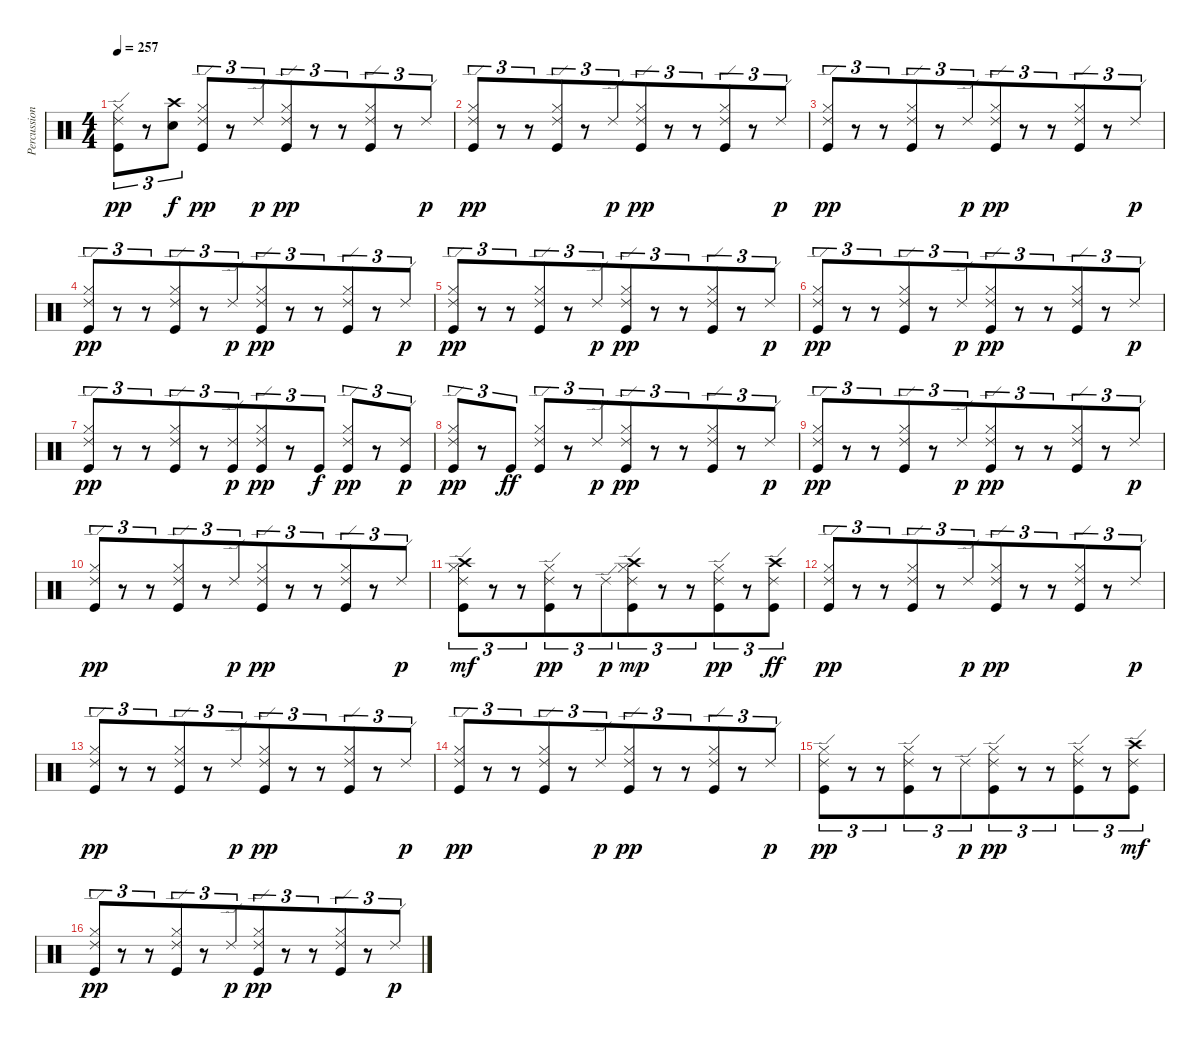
\track ("Percussion" "Percussion") {instrument percussion}
\staff {score}
\articulation defaults
\ts (4 4)
\tempo 257
\clef neutral
\ks c
("Ride (edge) 2" "Hi-Hat (closed)" "Kick (hit)").8{tu (3 2) dy pp beam merge} r.8{tu (3 2) beam merge} ("Crash high (hit)" "Electric Snare (hit)").8{tu (3 2) dy f} ("Ride (edge) 2" "Hi-Hat (closed)" "Kick (hit)").8{tu (3 2) dy pp} r.8{tu (3 2)} "Ride (edge) 2".8{tu (3 2) dy p beam merge} ("Ride (edge) 2" "Hi-Hat (closed)" "Kick (hit)").8{tu (3 2) dy pp beam merge} r.8{tu (3 2) beam merge} r.8{tu (3 2)} ("Ride (edge) 2" "Hi-Hat (closed)" "Kick (hit)").8{tu (3 2)} r.8{tu (3 2)} "Ride (edge) 2".8{tu (3 2) dy p} |
("Ride (edge) 2" "Hi-Hat (closed)" "Kick (hit)").8{tu (3 2) dy pp beam merge} r.8{tu (3 2) beam merge} r.8{tu (3 2)} ("Ride (edge) 2" "Hi-Hat (closed)" "Kick (hit)").8{tu (3 2)} r.8{tu (3 2)} "Ride (edge) 2".8{tu (3 2) dy p beam merge} ("Ride (edge) 2" "Hi-Hat (closed)" "Kick (hit)").8{tu (3 2) dy pp beam merge} r.8{tu (3 2) beam merge} r.8{tu (3 2)} ("Ride (edge) 2" "Hi-Hat (closed)" "Kick (hit)").8{tu (3 2)} r.8{tu (3 2)} "Ride (edge) 2".8{tu (3 2) dy p} |
("Ride (edge) 2" "Hi-Hat (closed)" "Kick (hit)").8{tu (3 2) dy pp beam merge} r.8{tu (3 2) beam merge} r.8{tu (3 2)} ("Ride (edge) 2" "Hi-Hat (closed)" "Kick (hit)").8{tu (3 2)} r.8{tu (3 2)} "Ride (edge) 2".8{tu (3 2) dy p beam merge} ("Ride (edge) 2" "Hi-Hat (closed)" "Kick (hit)").8{tu (3 2) dy pp beam merge} r.8{tu (3 2) beam merge} r.8{tu (3 2)} ("Ride (edge) 2" "Hi-Hat (closed)" "Kick (hit)").8{tu (3 2)} r.8{tu (3 2)} "Ride (edge) 2".8{tu (3 2) dy p} |
("Ride (edge) 2" "Hi-Hat (closed)" "Kick (hit)").8{tu (3 2) dy pp beam merge} r.8{tu (3 2) beam merge} r.8{tu (3 2)} ("Ride (edge) 2" "Hi-Hat (closed)" "Kick (hit)").8{tu (3 2)} r.8{tu (3 2)} "Ride (edge) 2".8{tu (3 2) dy p beam merge} ("Ride (edge) 2" "Hi-Hat (closed)" "Kick (hit)").8{tu (3 2) dy pp beam merge} r.8{tu (3 2) beam merge} r.8{tu (3 2)} ("Ride (edge) 2" "Hi-Hat (closed)" "Kick (hit)").8{tu (3 2)} r.8{tu (3 2)} "Ride (edge) 2".8{tu (3 2) dy p} |
("Ride (edge) 2" "Hi-Hat (closed)" "Kick (hit)").8{tu (3 2) dy pp beam merge} r.8{tu (3 2) beam merge} r.8{tu (3 2)} ("Ride (edge) 2" "Hi-Hat (closed)" "Kick (hit)").8{tu (3 2)} r.8{tu (3 2)} "Ride (edge) 2".8{tu (3 2) dy p beam merge} ("Ride (edge) 2" "Hi-Hat (closed)" "Kick (hit)").8{tu (3 2) dy pp beam merge} r.8{tu (3 2) beam merge} r.8{tu (3 2)} ("Ride (edge) 2" "Hi-Hat (closed)" "Kick (hit)").8{tu (3 2)} r.8{tu (3 2)} "Ride (edge) 2".8{tu (3 2) dy p} |
("Ride (edge) 2" "Hi-Hat (closed)" "Kick (hit)").8{tu (3 2) dy pp beam merge} r.8{tu (3 2) beam merge} r.8{tu (3 2)} ("Ride (edge) 2" "Hi-Hat (closed)" "Kick (hit)").8{tu (3 2)} r.8{tu (3 2)} "Ride (edge) 2".8{tu (3 2) dy p beam merge} ("Ride (edge) 2" "Hi-Hat (closed)" "Kick (hit)").8{tu (3 2) dy pp beam merge} r.8{tu (3 2) beam merge} r.8{tu (3 2)} ("Ride (edge) 2" "Hi-Hat (closed)" "Kick (hit)").8{tu (3 2)} r.8{tu (3 2)} "Ride (edge) 2".8{tu (3 2) dy p} |
("Ride (edge) 2" "Hi-Hat (closed)" "Kick (hit)").8{tu (3 2) dy pp beam merge} r.8{tu (3 2) beam merge} r.8{tu (3 2)} ("Ride (edge) 2" "Hi-Hat (closed)" "Kick (hit)").8{tu (3 2)} r.8{tu (3 2)} ("Ride (edge) 2" "Kick (hit)").8{tu (3 2) dy p beam merge} ("Ride (edge) 2" "Hi-Hat (closed)" "Kick (hit)").8{tu (3 2) dy pp beam merge} r.8{tu (3 2) beam merge} "Kick (hit)".8{tu (3 2) dy f} ("Ride (edge) 2" "Hi-Hat (closed)" "Kick (hit)").8{tu (3 2) dy pp} r.8{tu (3 2)} ("Ride (edge) 2" "Kick (hit)").8{tu (3 2) dy p} |
("Ride (edge) 2" "Hi-Hat (closed)" "Kick (hit)").8{tu (3 2) dy pp beam merge} r.8{tu (3 2) beam merge} "Kick (hit)".8{tu (3 2) dy ff} ("Ride (edge) 2" "Hi-Hat (closed)" "Kick (hit)").8{tu (3 2)} r.8{tu (3 2)} "Ride (edge) 2".8{tu (3 2) dy p beam merge} ("Ride (edge) 2" "Hi-Hat (closed)" "Kick (hit)").8{tu (3 2) dy pp beam merge} r.8{tu (3 2) beam merge} r.8{tu (3 2)} ("Ride (edge) 2" "Hi-Hat (closed)" "Kick (hit)").8{tu (3 2)} r.8{tu (3 2)} "Ride (edge) 2".8{tu (3 2) dy p} |
("Ride (edge) 2" "Hi-Hat (closed)" "Kick (hit)").8{tu (3 2) dy pp beam merge} r.8{tu (3 2) beam merge} r.8{tu (3 2)} ("Ride (edge) 2" "Hi-Hat (closed)" "Kick (hit)").8{tu (3 2)} r.8{tu (3 2)} "Ride (edge) 2".8{tu (3 2) dy p beam merge} ("Ride (edge) 2" "Hi-Hat (closed)" "Kick (hit)").8{tu (3 2) dy pp beam merge} r.8{tu (3 2) beam merge} r.8{tu (3 2)} ("Ride (edge) 2" "Hi-Hat (closed)" "Kick (hit)").8{tu (3 2)} r.8{tu (3 2)} "Ride (edge) 2".8{tu (3 2) dy p} |
("Ride (edge) 2" "Hi-Hat (closed)" "Kick (hit)").8{tu (3 2) dy pp beam merge} r.8{tu (3 2) beam merge} r.8{tu (3 2)} ("Ride (edge) 2" "Hi-Hat (closed)" "Kick (hit)").8{tu (3 2)} r.8{tu (3 2)} "Ride (edge) 2".8{tu (3 2) dy p beam merge} ("Ride (edge) 2" "Hi-Hat (closed)" "Kick (hit)").8{tu (3 2) dy pp beam merge} r.8{tu (3 2) beam merge} r.8{tu (3 2)} ("Ride (edge) 2" "Hi-Hat (closed)" "Kick (hit)").8{tu (3 2)} r.8{tu (3 2)} "Ride (edge) 2".8{tu (3 2) dy p} |
("Ride (edge) 2" "Crash high (hit)" "Hi-Hat (closed)" "Kick (hit)").8{tu (3 2) dy mf beam merge} r.8{tu (3 2) beam merge} r.8{tu (3 2)} ("Ride (edge) 2" "Hi-Hat (closed)" "Kick (hit)").8{tu (3 2) dy pp} r.8{tu (3 2)} "Ride (edge) 2".8{tu (3 2) dy p beam merge} ("Ride (edge) 2" "Crash high (hit)" "Hi-Hat (closed)" "Kick (hit)").8{tu (3 2) dy mp beam merge} r.8{tu (3 2) beam merge} r.8{tu (3 2)} ("Ride (edge) 2" "Hi-Hat (closed)" "Kick (hit)").8{tu (3 2) dy pp} r.8{tu (3 2)} ("Ride (edge) 2" "Crash high (hit)" "Kick (hit)").8{tu (3 2) dy ff} |
("Ride (edge) 2" "Hi-Hat (closed)" "Kick (hit)").8{tu (3 2) dy pp beam merge} r.8{tu (3 2) beam merge} r.8{tu (3 2)} ("Ride (edge) 2" "Hi-Hat (closed)" "Kick (hit)").8{tu (3 2)} r.8{tu (3 2)} "Ride (edge) 2".8{tu (3 2) dy p beam merge} ("Ride (edge) 2" "Hi-Hat (closed)" "Kick (hit)").8{tu (3 2) dy pp beam merge} r.8{tu (3 2) beam merge} r.8{tu (3 2)} ("Ride (edge) 2" "Hi-Hat (closed)" "Kick (hit)").8{tu (3 2)} r.8{tu (3 2)} "Ride (edge) 2".8{tu (3 2) dy p} |
("Ride (edge) 2" "Hi-Hat (closed)" "Kick (hit)").8{tu (3 2) dy pp beam merge} r.8{tu (3 2) beam merge} r.8{tu (3 2)} ("Ride (edge) 2" "Hi-Hat (closed)" "Kick (hit)").8{tu (3 2)} r.8{tu (3 2)} "Ride (edge) 2".8{tu (3 2) dy p beam merge} ("Ride (edge) 2" "Hi-Hat (closed)" "Kick (hit)").8{tu (3 2) dy pp beam merge} r.8{tu (3 2) beam merge} r.8{tu (3 2)} ("Ride (edge) 2" "Hi-Hat (closed)" "Kick (hit)").8{tu (3 2)} r.8{tu (3 2)} "Ride (edge) 2".8{tu (3 2) dy p} |
("Ride (edge) 2" "Hi-Hat (closed)" "Kick (hit)").8{tu (3 2) dy pp beam merge} r.8{tu (3 2) beam merge} r.8{tu (3 2)} ("Ride (edge) 2" "Hi-Hat (closed)" "Kick (hit)").8{tu (3 2)} r.8{tu (3 2)} "Ride (edge) 2".8{tu (3 2) dy p beam merge} ("Ride (edge) 2" "Hi-Hat (closed)" "Kick (hit)").8{tu (3 2) dy pp beam merge} r.8{tu (3 2) beam merge} r.8{tu (3 2)} ("Ride (edge) 2" "Hi-Hat (closed)" "Kick (hit)").8{tu (3 2)} r.8{tu (3 2)} "Ride (edge) 2".8{tu (3 2) dy p} |
("Ride (edge) 2" "Hi-Hat (closed)" "Kick (hit)").8{tu (3 2) dy pp beam merge} r.8{tu (3 2) beam merge} r.8{tu (3 2)} ("Ride (edge) 2" "Hi-Hat (closed)" "Kick (hit)").8{tu (3 2)} r.8{tu (3 2)} "Ride (edge) 2".8{tu (3 2) dy p beam merge} ("Ride (edge) 2" "Hi-Hat (closed)" "Kick (hit)").8{tu (3 2) dy pp beam merge} r.8{tu (3 2) beam merge} r.8{tu (3 2)} ("Ride (edge) 2" "Hi-Hat (closed)" "Kick (hit)").8{tu (3 2)} r.8{tu (3 2)} ("Ride (edge) 2" "Crash high (hit)" "Kick (hit)").8{tu (3 2) dy mf} |
("Ride (edge) 2" "Hi-Hat (closed)" "Kick (hit)").8{tu (3 2) dy pp beam merge} r.8{tu (3 2) beam merge} r.8{tu (3 2)} ("Ride (edge) 2" "Hi-Hat (closed)" "Kick (hit)").8{tu (3 2)} r.8{tu (3 2)} "Ride (edge) 2".8{tu (3 2) dy p beam merge} ("Ride (edge) 2" "Hi-Hat (closed)" "Kick (hit)").8{tu (3 2) dy pp beam merge} r.8{tu (3 2) beam merge} r.8{tu (3 2)} ("Ride (edge) 2" "Hi-Hat (closed)" "Kick (hit)").8{tu (3 2)} r.8{tu (3 2)} "Ride (edge) 2".8{tu (3 2) dy p}
